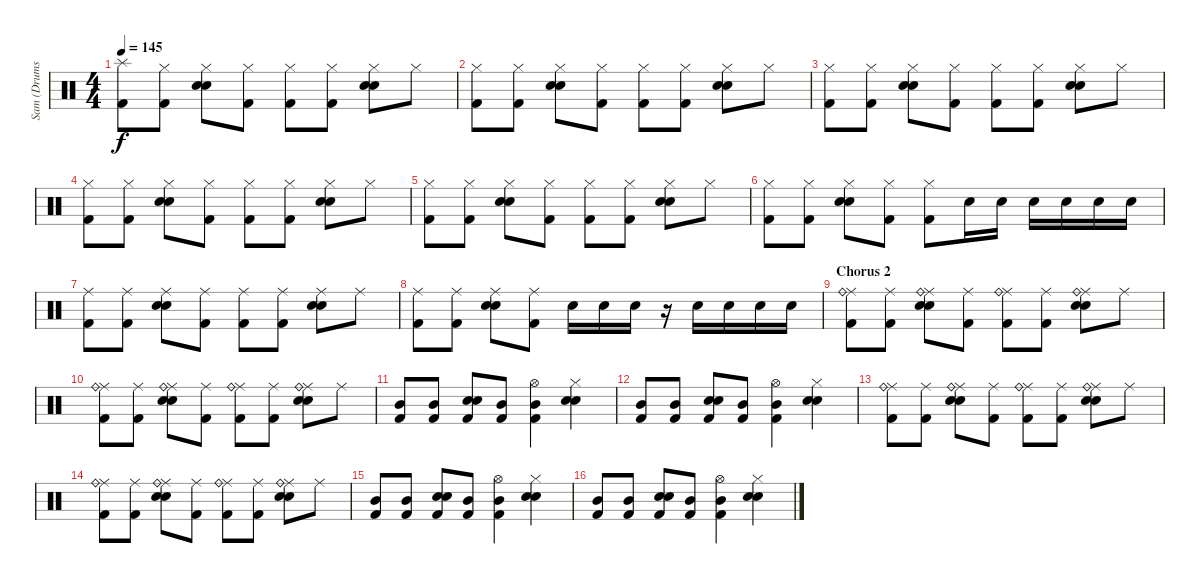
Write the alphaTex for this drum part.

\track ("Sam (Drums)" "Sam (Drums") {instrument percussion}
\staff {score}
\articulation defaults
\ts (4 4)
\tempo 145
\clef neutral
\ks c
("Splash (hit)" "Kick (hit) 2").8{dy f} ("Hi-Hat (closed)" "Kick (hit) 2").8 ("Hi-Hat (closed)" "Electric Snare (hit)" "Snare (hit) 2").8 ("Hi-Hat (closed)" "Kick (hit) 2").8 ("Hi-Hat (closed)" "Kick (hit) 2").8 ("Hi-Hat (closed)" "Kick (hit) 2").8 ("Hi-Hat (closed)" "Electric Snare (hit)" "Snare (hit) 2").8 "Hi-Hat (closed)".8 |
("Hi-Hat (closed)" "Kick (hit) 2").8 ("Hi-Hat (closed)" "Kick (hit) 2").8 ("Hi-Hat (closed)" "Electric Snare (hit)" "Snare (hit) 2").8 ("Hi-Hat (closed)" "Kick (hit) 2").8 ("Hi-Hat (closed)" "Kick (hit) 2").8 ("Hi-Hat (closed)" "Kick (hit) 2").8 ("Hi-Hat (closed)" "Electric Snare (hit)" "Snare (hit) 2").8 "Hi-Hat (closed)".8 |
("Hi-Hat (closed)" "Kick (hit) 2").8 ("Hi-Hat (closed)" "Kick (hit) 2").8 ("Hi-Hat (closed)" "Electric Snare (hit)" "Snare (hit) 2").8 ("Hi-Hat (closed)" "Kick (hit) 2").8 ("Hi-Hat (closed)" "Kick (hit) 2").8 ("Hi-Hat (closed)" "Kick (hit) 2").8 ("Hi-Hat (closed)" "Electric Snare (hit)" "Snare (hit) 2").8 "Hi-Hat (closed)".8 |
("Hi-Hat (closed)" "Kick (hit) 2").8 ("Hi-Hat (closed)" "Kick (hit) 2").8 ("Hi-Hat (closed)" "Electric Snare (hit)" "Snare (hit) 2").8 ("Hi-Hat (closed)" "Kick (hit) 2").8 ("Hi-Hat (closed)" "Kick (hit) 2").8 ("Hi-Hat (closed)" "Kick (hit) 2").8 ("Hi-Hat (closed)" "Electric Snare (hit)" "Snare (hit) 2").8 "Hi-Hat (closed)".8 |
("Hi-Hat (closed)" "Kick (hit) 2").8 ("Hi-Hat (closed)" "Kick (hit) 2").8 ("Hi-Hat (closed)" "Electric Snare (hit)" "Snare (hit) 2").8 ("Hi-Hat (closed)" "Kick (hit) 2").8 ("Hi-Hat (closed)" "Kick (hit) 2").8 ("Hi-Hat (closed)" "Kick (hit) 2").8 ("Hi-Hat (closed)" "Electric Snare (hit)" "Snare (hit) 2").8 "Hi-Hat (closed)".8 |
("Hi-Hat (closed)" "Kick (hit) 2").8 ("Hi-Hat (closed)" "Kick (hit) 2").8 ("Hi-Hat (closed)" "Electric Snare (hit)" "Snare (hit) 2").8 ("Hi-Hat (closed)" "Kick (hit) 2").8 ("Hi-Hat (closed)" "Kick (hit) 2").8 "Electric Snare (hit)".16 "Electric Snare (hit)".16 "Electric Snare (hit)".16 "Electric Snare (hit)".16 "Electric Snare (hit)".16 "Electric Snare (hit)".16 |
("Ride (middle)" "Kick (hit) 2").8 ("Ride (middle)" "Kick (hit) 2").8 ("Ride (middle)" "Electric Snare (hit)" "Snare (hit) 2").8 ("Ride (middle)" "Kick (hit) 2").8 ("Ride (middle)" "Kick (hit) 2").8 ("Ride (middle)" "Kick (hit) 2").8 ("Ride (middle)" "Electric Snare (hit)" "Snare (hit) 2").8 "Ride (middle)".8 |
("Ride (middle)" "Kick (hit) 2").8 ("Ride (middle)" "Kick (hit) 2").8 ("Ride (middle)" "Electric Snare (hit)" "Snare (hit) 2").8 ("Ride (middle)" "Kick (hit) 2").8 "Electric Snare (hit)".16 "Electric Snare (hit)".16 "Electric Snare (hit)".16 r.16 "Electric Snare (hit)".16 "Electric Snare (hit)".16 "Electric Snare (hit)".16 "Electric Snare (hit)".16 |
\section ("" "Chorus 2")
("Ride (middle)" "Ride (bell)" "Kick (hit) 2").8 ("Ride (middle)" "Kick (hit) 2").8 ("Ride (middle)" "Ride (bell)" "Electric Snare (hit)" "Snare (hit) 2").8 ("Ride (middle)" "Kick (hit) 2").8 ("Ride (middle)" "Ride (bell)" "Kick (hit) 2").8 ("Ride (middle)" "Kick (hit) 2").8 ("Ride (middle)" "Ride (bell)" "Electric Snare (hit)" "Snare (hit) 2").8 "Ride (middle)".8 |
("Ride (middle)" "Ride (bell)" "Kick (hit) 2").8 ("Ride (middle)" "Kick (hit) 2").8 ("Ride (middle)" "Ride (bell)" "Electric Snare (hit)" "Snare (hit) 2").8 ("Ride (middle)" "Kick (hit) 2").8 ("Ride (middle)" "Ride (bell)" "Kick (hit) 2").8 ("Ride (middle)" "Kick (hit) 2").8 ("Ride (middle)" "Ride (bell)" "Electric Snare (hit)" "Snare (hit) 2").8 "Ride (middle)".8 |
("Mid Tom (hit)" "Kick (hit) 2").8 ("Mid Tom (hit)" "Kick (hit) 2").8 ("Electric Snare (hit)" "Snare (hit) 2" "Kick (hit) 2").8 ("Mid Tom (hit)" "Kick (hit) 2").8 ("Hi-Hat (open)" "Mid Tom (hit)" "Kick (hit) 2").4 ("Hi-Hat (closed)" "Electric Snare (hit)" "Snare (hit) 2").4 |
("Mid Tom (hit)" "Kick (hit) 2").8 ("Mid Tom (hit)" "Kick (hit) 2").8 ("Electric Snare (hit)" "Snare (hit) 2" "Kick (hit) 2").8 ("Mid Tom (hit)" "Kick (hit) 2").8 ("Hi-Hat (open)" "Mid Tom (hit)" "Kick (hit) 2").4 ("Hi-Hat (closed)" "Electric Snare (hit)" "Snare (hit) 2").4 |
("Ride (middle)" "Ride (bell)" "Kick (hit) 2").8 ("Ride (middle)" "Kick (hit) 2").8 ("Ride (middle)" "Ride (bell)" "Electric Snare (hit)" "Snare (hit) 2").8 ("Ride (middle)" "Kick (hit) 2").8 ("Ride (middle)" "Ride (bell)" "Kick (hit) 2").8 ("Ride (middle)" "Kick (hit) 2").8 ("Ride (middle)" "Ride (bell)" "Electric Snare (hit)" "Snare (hit) 2").8 "Ride (middle)".8 |
("Ride (middle)" "Ride (bell)" "Kick (hit) 2").8 ("Ride (middle)" "Kick (hit) 2").8 ("Ride (middle)" "Ride (bell)" "Electric Snare (hit)" "Snare (hit) 2").8 ("Ride (middle)" "Kick (hit) 2").8 ("Ride (middle)" "Ride (bell)" "Kick (hit) 2").8 ("Ride (middle)" "Kick (hit) 2").8 ("Ride (middle)" "Ride (bell)" "Electric Snare (hit)" "Snare (hit) 2").8 "Ride (middle)".8 |
("Mid Tom (hit)" "Kick (hit) 2").8 ("Mid Tom (hit)" "Kick (hit) 2").8 ("Electric Snare (hit)" "Snare (hit) 2" "Kick (hit) 2").8 ("Mid Tom (hit)" "Kick (hit) 2").8 ("Hi-Hat (open)" "Mid Tom (hit)" "Kick (hit) 2").4 ("Hi-Hat (closed)" "Electric Snare (hit)" "Snare (hit) 2").4 |
("Mid Tom (hit)" "Kick (hit) 2").8 ("Mid Tom (hit)" "Kick (hit) 2").8 ("Electric Snare (hit)" "Snare (hit) 2" "Kick (hit) 2").8 ("Mid Tom (hit)" "Kick (hit) 2").8 ("Hi-Hat (open)" "Mid Tom (hit)" "Kick (hit) 2").4 ("Hi-Hat (closed)" "Electric Snare (hit)" "Snare (hit) 2").4
